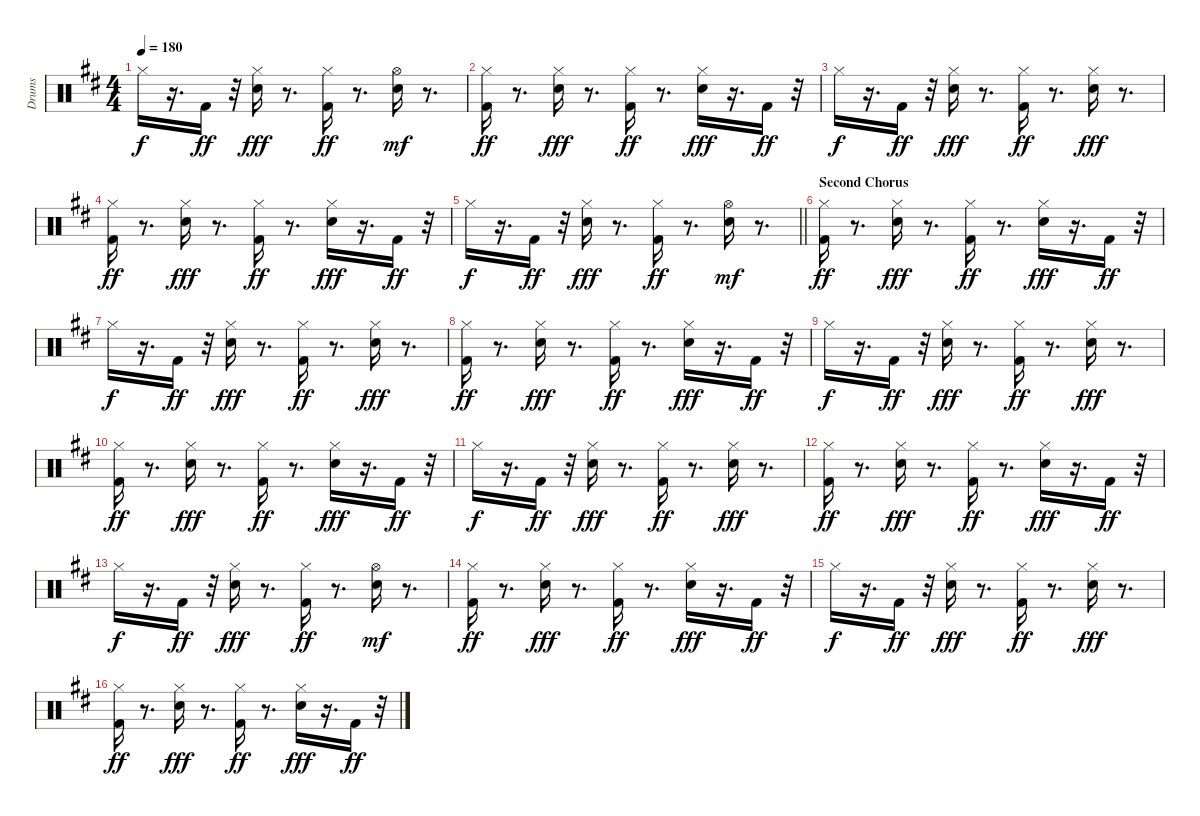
\track ("Drums" "Drums") {instrument percussion}
\staff {score}
\articulation defaults
\ts (4 4)
\tempo 180
\clef neutral
\ks bminor "Hi-Hat (closed)".16{dy f}
r.16{d} "Kick (hit) 2".16{dy ff} r.32 ("Snare (hit) 2" "Hi-Hat (closed)").16{dy fff} r.8{d} ("Kick (hit) 2" "Hi-Hat (closed)").16{dy ff} r.8{d} ("Snare (hit) 2" "Hi-Hat (open)").16{dy mf} r.8{d} |
("Kick (hit) 2" "Hi-Hat (closed)").16{dy ff} r.8{d} ("Snare (hit) 2" "Hi-Hat (closed)").16{dy fff} r.8{d} ("Kick (hit) 2" "Hi-Hat (closed)").16{dy ff} r.8{d} ("Snare (hit) 2" "Hi-Hat (closed)").16{dy fff} r.16{d} "Kick (hit) 2".16{dy ff} r.32 |
"Hi-Hat (closed)".16{dy f} r.16{d} "Kick (hit) 2".16{dy ff} r.32 ("Snare (hit) 2" "Hi-Hat (closed)").16{dy fff} r.8{d} ("Kick (hit) 2" "Hi-Hat (closed)").16{dy ff} r.8{d} ("Snare (hit) 2" "Hi-Hat (closed)").16{dy fff} r.8{d} |
("Kick (hit) 2" "Hi-Hat (closed)").16{dy ff} r.8{d} ("Snare (hit) 2" "Hi-Hat (closed)").16{dy fff} r.8{d} ("Kick (hit) 2" "Hi-Hat (closed)").16{dy ff} r.8{d} ("Snare (hit) 2" "Hi-Hat (closed)").16{dy fff} r.16{d} "Kick (hit) 2".16{dy ff} r.32 |
\barLineRight lightlight "Hi-Hat (closed)".16{dy f}
r.16{d} "Kick (hit) 2".16{dy ff} r.32 ("Snare (hit) 2" "Hi-Hat (closed)").16{dy fff} r.8{d} ("Kick (hit) 2" "Hi-Hat (closed)").16{dy ff} r.8{d} ("Snare (hit) 2" "Hi-Hat (open)").16{dy mf} r.8{d} |
\section ("" "Second Chorus")
("Kick (hit) 2" "Hi-Hat (closed)").16{dy ff} r.8{d} ("Snare (hit) 2" "Hi-Hat (closed)").16{dy fff} r.8{d} ("Kick (hit) 2" "Hi-Hat (closed)").16{dy ff} r.8{d} ("Snare (hit) 2" "Hi-Hat (closed)").16{dy fff} r.16{d} "Kick (hit) 2".16{dy ff} r.32 |
"Hi-Hat (closed)".16{dy f} r.16{d} "Kick (hit) 2".16{dy ff} r.32 ("Snare (hit) 2" "Hi-Hat (closed)").16{dy fff} r.8{d} ("Kick (hit) 2" "Hi-Hat (closed)").16{dy ff} r.8{d} ("Snare (hit) 2" "Hi-Hat (closed)").16{dy fff} r.8{d} |
("Kick (hit) 2" "Hi-Hat (closed)").16{dy ff} r.8{d} ("Snare (hit) 2" "Hi-Hat (closed)").16{dy fff} r.8{d} ("Kick (hit) 2" "Hi-Hat (closed)").16{dy ff} r.8{d} ("Snare (hit) 2" "Hi-Hat (closed)").16{dy fff} r.16{d} "Kick (hit) 2".16{dy ff} r.32 |
"Hi-Hat (closed)".16{dy f} r.16{d} "Kick (hit) 2".16{dy ff} r.32 ("Snare (hit) 2" "Hi-Hat (closed)").16{dy fff} r.8{d} ("Kick (hit) 2" "Hi-Hat (closed)").16{dy ff} r.8{d} ("Snare (hit) 2" "Hi-Hat (closed)").16{dy fff} r.8{d} |
("Kick (hit) 2" "Hi-Hat (closed)").16{dy ff} r.8{d} ("Snare (hit) 2" "Hi-Hat (closed)").16{dy fff} r.8{d} ("Kick (hit) 2" "Hi-Hat (closed)").16{dy ff} r.8{d} ("Snare (hit) 2" "Hi-Hat (closed)").16{dy fff} r.16{d} "Kick (hit) 2".16{dy ff} r.32 |
"Hi-Hat (closed)".16{dy f} r.16{d} "Kick (hit) 2".16{dy ff} r.32 ("Snare (hit) 2" "Hi-Hat (closed)").16{dy fff} r.8{d} ("Kick (hit) 2" "Hi-Hat (closed)").16{dy ff} r.8{d} ("Snare (hit) 2" "Hi-Hat (closed)").16{dy fff} r.8{d} |
("Kick (hit) 2" "Hi-Hat (closed)").16{dy ff} r.8{d} ("Snare (hit) 2" "Hi-Hat (closed)").16{dy fff} r.8{d} ("Kick (hit) 2" "Hi-Hat (closed)").16{dy ff} r.8{d} ("Snare (hit) 2" "Hi-Hat (closed)").16{dy fff} r.16{d} "Kick (hit) 2".16{dy ff} r.32 |
"Hi-Hat (closed)".16{dy f} r.16{d} "Kick (hit) 2".16{dy ff} r.32 ("Snare (hit) 2" "Hi-Hat (closed)").16{dy fff} r.8{d} ("Kick (hit) 2" "Hi-Hat (closed)").16{dy ff} r.8{d} ("Snare (hit) 2" "Hi-Hat (open)").16{dy mf} r.8{d} |
("Kick (hit) 2" "Hi-Hat (closed)").16{dy ff} r.8{d} ("Snare (hit) 2" "Hi-Hat (closed)").16{dy fff} r.8{d} ("Kick (hit) 2" "Hi-Hat (closed)").16{dy ff} r.8{d} ("Snare (hit) 2" "Hi-Hat (closed)").16{dy fff} r.16{d} "Kick (hit) 2".16{dy ff} r.32 |
"Hi-Hat (closed)".16{dy f} r.16{d} "Kick (hit) 2".16{dy ff} r.32 ("Snare (hit) 2" "Hi-Hat (closed)").16{dy fff} r.8{d} ("Kick (hit) 2" "Hi-Hat (closed)").16{dy ff} r.8{d} ("Snare (hit) 2" "Hi-Hat (closed)").16{dy fff} r.8{d} |
("Kick (hit) 2" "Hi-Hat (closed)").16{dy ff} r.8{d} ("Snare (hit) 2" "Hi-Hat (closed)").16{dy fff} r.8{d} ("Kick (hit) 2" "Hi-Hat (closed)").16{dy ff} r.8{d} ("Snare (hit) 2" "Hi-Hat (closed)").16{dy fff} r.16{d} "Kick (hit) 2".16{dy ff} r.32
